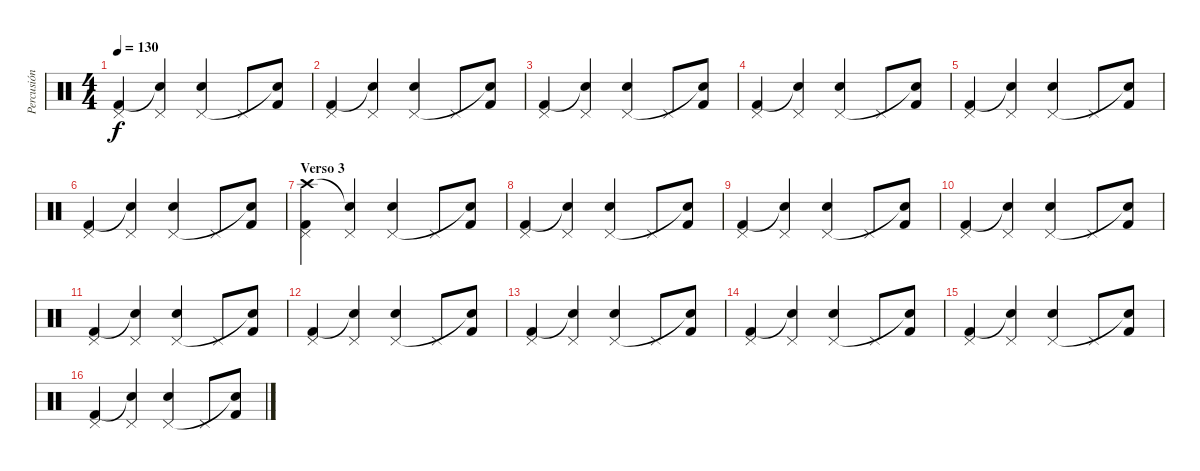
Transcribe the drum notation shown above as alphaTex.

\track ("Percusión" "Percusión") {instrument percussion}
\staff {score}
\articulation defaults
\ts (4 4)
\tempo 130
\clef neutral
\ks c
("Kick (hit) 2" "Pedal Hi-Hat (hit)").4{dy f} ("Snare (hit)"{t} "Pedal Hi-Hat (hit)").4 ("Snare (hit) 2" "Pedal Hi-Hat (hit)").4 "Pedal Hi-Hat (hit)".8 ("Kick (hit) 2" "Snare (hit)"{t}).8 |
("Kick (hit) 2" "Pedal Hi-Hat (hit)").4 ("Snare (hit)"{t} "Pedal Hi-Hat (hit)").4 ("Snare (hit) 2" "Pedal Hi-Hat (hit)").4 "Pedal Hi-Hat (hit)".8 ("Kick (hit) 2" "Snare (hit)"{t}).8 |
("Kick (hit) 2" "Pedal Hi-Hat (hit)").4 ("Snare (hit)"{t} "Pedal Hi-Hat (hit)").4 ("Snare (hit) 2" "Pedal Hi-Hat (hit)").4 "Pedal Hi-Hat (hit)".8 ("Kick (hit) 2" "Snare (hit)"{t}).8 |
("Kick (hit) 2" "Pedal Hi-Hat (hit)").4 ("Snare (hit)"{t} "Pedal Hi-Hat (hit)").4 ("Snare (hit) 2" "Pedal Hi-Hat (hit)").4 "Pedal Hi-Hat (hit)".8 ("Kick (hit) 2" "Snare (hit)"{t}).8 |
("Kick (hit) 2" "Pedal Hi-Hat (hit)").4 ("Snare (hit)"{t} "Pedal Hi-Hat (hit)").4 ("Snare (hit) 2" "Pedal Hi-Hat (hit)").4 "Pedal Hi-Hat (hit)".8 ("Kick (hit) 2" "Snare (hit)"{t}).8 |
("Kick (hit) 2" "Pedal Hi-Hat (hit)").4 ("Snare (hit)"{t} "Pedal Hi-Hat (hit)").4 ("Snare (hit) 2" "Pedal Hi-Hat (hit)").4 "Pedal Hi-Hat (hit)".8 ("Kick (hit) 2" "Snare (hit)"{t}).8 |
\section ("" "Verso 3")
("Crash high (hit)" "Kick (hit) 2" "Pedal Hi-Hat (hit)").4 ("Snare (hit)"{t} "Pedal Hi-Hat (hit)").4 ("Snare (hit) 2" "Pedal Hi-Hat (hit)").4 "Pedal Hi-Hat (hit)".8 ("Kick (hit) 2" "Snare (hit)"{t}).8 |
("Kick (hit) 2" "Pedal Hi-Hat (hit)").4 ("Snare (hit)"{t} "Pedal Hi-Hat (hit)").4 ("Snare (hit) 2" "Pedal Hi-Hat (hit)").4 "Pedal Hi-Hat (hit)".8 ("Kick (hit) 2" "Snare (hit)"{t}).8 |
("Kick (hit) 2" "Pedal Hi-Hat (hit)").4 ("Snare (hit)"{t} "Pedal Hi-Hat (hit)").4 ("Snare (hit) 2" "Pedal Hi-Hat (hit)").4 "Pedal Hi-Hat (hit)".8 ("Kick (hit) 2" "Snare (hit)"{t}).8 |
("Kick (hit) 2" "Pedal Hi-Hat (hit)").4 ("Snare (hit)"{t} "Pedal Hi-Hat (hit)").4 ("Snare (hit) 2" "Pedal Hi-Hat (hit)").4 "Pedal Hi-Hat (hit)".8 ("Kick (hit) 2" "Snare (hit)"{t}).8 |
("Kick (hit) 2" "Pedal Hi-Hat (hit)").4 ("Snare (hit)"{t} "Pedal Hi-Hat (hit)").4 ("Snare (hit) 2" "Pedal Hi-Hat (hit)").4 "Pedal Hi-Hat (hit)".8 ("Kick (hit) 2" "Snare (hit)"{t}).8 |
("Kick (hit) 2" "Pedal Hi-Hat (hit)").4 ("Snare (hit)"{t} "Pedal Hi-Hat (hit)").4 ("Snare (hit) 2" "Pedal Hi-Hat (hit)").4 "Pedal Hi-Hat (hit)".8 ("Kick (hit) 2" "Snare (hit)"{t}).8 |
("Kick (hit) 2" "Pedal Hi-Hat (hit)").4 ("Snare (hit)"{t} "Pedal Hi-Hat (hit)").4 ("Snare (hit) 2" "Pedal Hi-Hat (hit)").4 "Pedal Hi-Hat (hit)".8 ("Kick (hit) 2" "Snare (hit)"{t}).8 |
("Kick (hit) 2" "Pedal Hi-Hat (hit)").4 ("Snare (hit)"{t} "Pedal Hi-Hat (hit)").4 ("Snare (hit) 2" "Pedal Hi-Hat (hit)").4 "Pedal Hi-Hat (hit)".8 ("Kick (hit) 2" "Snare (hit)"{t}).8 |
("Kick (hit) 2" "Pedal Hi-Hat (hit)").4 ("Snare (hit)"{t} "Pedal Hi-Hat (hit)").4 ("Snare (hit) 2" "Pedal Hi-Hat (hit)").4 "Pedal Hi-Hat (hit)".8 ("Kick (hit) 2" "Snare (hit)"{t}).8 |
("Kick (hit) 2" "Pedal Hi-Hat (hit)").4 ("Snare (hit)"{t} "Pedal Hi-Hat (hit)").4 ("Snare (hit) 2" "Pedal Hi-Hat (hit)").4 "Pedal Hi-Hat (hit)".8 ("Kick (hit) 2" "Snare (hit)"{t}).8
